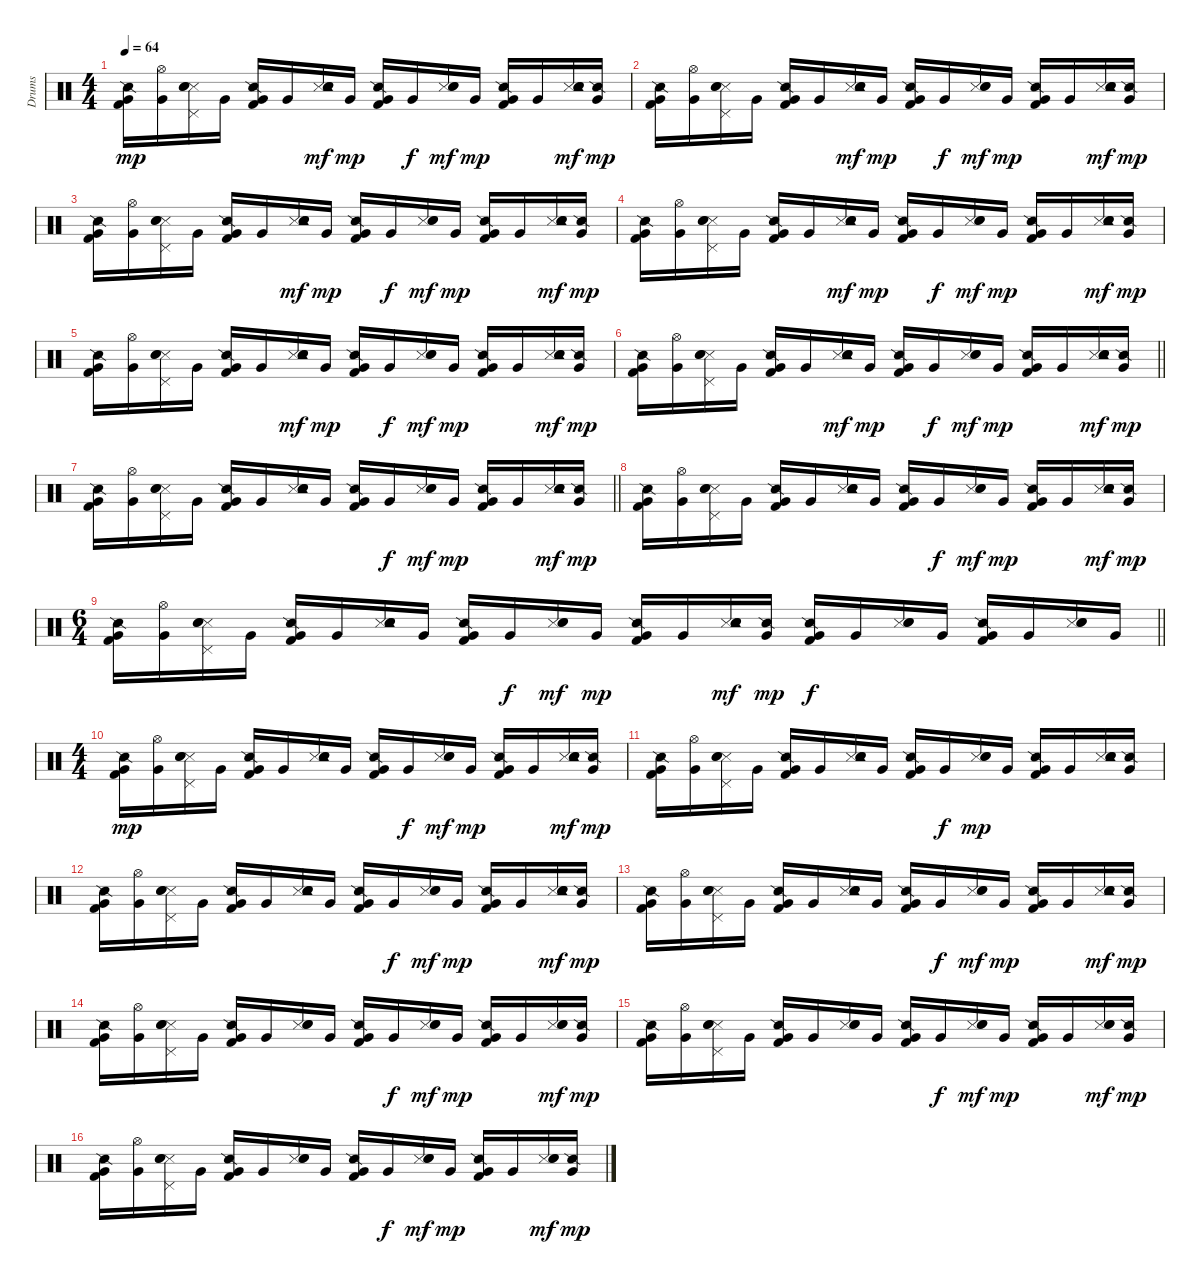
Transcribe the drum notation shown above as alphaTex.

\track ("Drums" "Drums") {instrument percussion}
\staff {score}
\articulation defaults
\ts (4 4)
\tempo 64
\clef neutral
\ks c
("Snare (side stick) 2" "Very Low Tom (hit)" "Kick (hit) 2").16{dy mp} ("Hi-Hat (open)" "Very Low Tom (hit)").16 ("Metronome (hit)" "Snare (hit) 2" "Hand Clap (hit)" "Pedal Hi-Hat (hit)").16 "Very Low Tom (hit)".16 ("Snare (side stick) 2" "Very Low Tom (hit)" "Kick (hit) 2").16 "Very Low Tom (hit)".16 ("Metronome (hit)" "Hand Clap (hit)" "Snare (hit) 2" "Tambourine (hit)").16{dy mf} "Very Low Tom (hit)".16{dy mp} ("Snare (side stick) 2" "Very Low Tom (hit)" "Kick (hit) 2").16 "Very Low Tom (hit)".16{dy f} ("Metronome (hit)" "Hand Clap (hit)" "Snare (hit) 2").16{dy mf} "Very Low Tom (hit)".16{dy mp} ("Snare (side stick) 2" "Very Low Tom (hit)" "Kick (hit) 2").16 "Very Low Tom (hit)".16 ("Metronome (hit)" "Hand Clap (hit)" "Snare (hit) 2" "Tambourine (hit)").16{dy mf} ("Snare (side stick) 2" "Very Low Tom (hit)").16{dy mp} |
("Snare (side stick) 2" "Very Low Tom (hit)" "Kick (hit) 2").16 ("Hi-Hat (open)" "Very Low Tom (hit)").16 ("Metronome (hit)" "Snare (hit) 2" "Hand Clap (hit)" "Pedal Hi-Hat (hit)").16 "Very Low Tom (hit)".16 ("Snare (side stick) 2" "Very Low Tom (hit)" "Kick (hit) 2").16 "Very Low Tom (hit)".16 ("Metronome (hit)" "Hand Clap (hit)" "Snare (hit) 2" "Tambourine (hit)").16{dy mf} "Very Low Tom (hit)".16{dy mp} ("Snare (side stick) 2" "Very Low Tom (hit)" "Kick (hit) 2").16 "Very Low Tom (hit)".16{dy f} ("Metronome (hit)" "Hand Clap (hit)" "Snare (hit) 2").16{dy mf} "Very Low Tom (hit)".16{dy mp} ("Snare (side stick) 2" "Very Low Tom (hit)" "Kick (hit) 2").16 "Very Low Tom (hit)".16 ("Metronome (hit)" "Hand Clap (hit)" "Snare (hit) 2" "Tambourine (hit)").16{dy mf} ("Snare (side stick) 2" "Very Low Tom (hit)").16{dy mp} |
("Snare (side stick) 2" "Very Low Tom (hit)" "Kick (hit) 2").16 ("Hi-Hat (open)" "Very Low Tom (hit)").16 ("Metronome (hit)" "Snare (hit) 2" "Hand Clap (hit)" "Pedal Hi-Hat (hit)").16 "Very Low Tom (hit)".16 ("Snare (side stick) 2" "Very Low Tom (hit)" "Kick (hit) 2").16 "Very Low Tom (hit)".16 ("Metronome (hit)" "Hand Clap (hit)" "Snare (hit) 2" "Tambourine (hit)").16{dy mf} "Very Low Tom (hit)".16{dy mp} ("Snare (side stick) 2" "Very Low Tom (hit)" "Kick (hit) 2").16 "Very Low Tom (hit)".16{dy f} ("Metronome (hit)" "Hand Clap (hit)" "Snare (hit) 2").16{dy mf} "Very Low Tom (hit)".16{dy mp} ("Snare (side stick) 2" "Very Low Tom (hit)" "Kick (hit) 2").16 "Very Low Tom (hit)".16 ("Metronome (hit)" "Hand Clap (hit)" "Snare (hit) 2" "Tambourine (hit)").16{dy mf} ("Snare (side stick) 2" "Very Low Tom (hit)").16{dy mp} |
("Snare (side stick) 2" "Very Low Tom (hit)" "Kick (hit) 2").16 ("Hi-Hat (open)" "Very Low Tom (hit)").16 ("Metronome (hit)" "Snare (hit) 2" "Hand Clap (hit)" "Pedal Hi-Hat (hit)").16 "Very Low Tom (hit)".16 ("Snare (side stick) 2" "Very Low Tom (hit)" "Kick (hit) 2").16 "Very Low Tom (hit)".16 ("Metronome (hit)" "Hand Clap (hit)" "Snare (hit) 2" "Tambourine (hit)").16{dy mf} "Very Low Tom (hit)".16{dy mp} ("Snare (side stick) 2" "Very Low Tom (hit)" "Kick (hit) 2").16 "Very Low Tom (hit)".16{dy f} ("Metronome (hit)" "Hand Clap (hit)" "Snare (hit) 2").16{dy mf} "Very Low Tom (hit)".16{dy mp} ("Snare (side stick) 2" "Very Low Tom (hit)" "Kick (hit) 2").16 "Very Low Tom (hit)".16 ("Metronome (hit)" "Hand Clap (hit)" "Snare (hit) 2" "Tambourine (hit)").16{dy mf} ("Snare (side stick) 2" "Very Low Tom (hit)").16{dy mp} |
("Snare (side stick) 2" "Very Low Tom (hit)" "Kick (hit) 2").16 ("Hi-Hat (open)" "Very Low Tom (hit)").16 ("Metronome (hit)" "Snare (hit) 2" "Hand Clap (hit)" "Pedal Hi-Hat (hit)").16 "Very Low Tom (hit)".16 ("Snare (side stick) 2" "Very Low Tom (hit)" "Kick (hit) 2").16 "Very Low Tom (hit)".16 ("Metronome (hit)" "Hand Clap (hit)" "Snare (hit) 2" "Tambourine (hit)").16{dy mf} "Very Low Tom (hit)".16{dy mp} ("Snare (side stick) 2" "Very Low Tom (hit)" "Kick (hit) 2").16 "Very Low Tom (hit)".16{dy f} ("Metronome (hit)" "Hand Clap (hit)" "Snare (hit) 2").16{dy mf} "Very Low Tom (hit)".16{dy mp} ("Snare (side stick) 2" "Very Low Tom (hit)" "Kick (hit) 2").16 "Very Low Tom (hit)".16 ("Metronome (hit)" "Hand Clap (hit)" "Snare (hit) 2" "Tambourine (hit)").16{dy mf} ("Snare (side stick) 2" "Very Low Tom (hit)").16{dy mp} |
\barLineRight lightlight
("Snare (side stick) 2" "Very Low Tom (hit)" "Kick (hit) 2").16{volume 13} ("Hi-Hat (open)" "Very Low Tom (hit)").16 ("Metronome (hit)" "Snare (hit) 2" "Hand Clap (hit)" "Pedal Hi-Hat (hit)").16 "Very Low Tom (hit)".16 ("Snare (side stick) 2" "Very Low Tom (hit)" "Kick (hit) 2").16 "Very Low Tom (hit)".16 ("Metronome (hit)" "Hand Clap (hit)" "Snare (hit) 2" "Tambourine (hit)").16{dy mf} "Very Low Tom (hit)".16{dy mp} ("Snare (side stick) 2" "Very Low Tom (hit)" "Kick (hit) 2").16 "Very Low Tom (hit)".16{dy f} ("Metronome (hit)" "Hand Clap (hit)" "Snare (hit) 2").16{dy mf} "Very Low Tom (hit)".16{dy mp} ("Snare (side stick) 2" "Very Low Tom (hit)" "Kick (hit) 2").16 "Very Low Tom (hit)".16 ("Metronome (hit)" "Hand Clap (hit)" "Snare (hit) 2" "Tambourine (hit)").16{dy mf} ("Snare (side stick) 2" "Very Low Tom (hit)").16{dy mp} |
\barLineRight lightlight
("Snare (side stick) 2" "Very Low Tom (hit)" "Kick (hit) 2").16 ("Hi-Hat (open)" "Very Low Tom (hit)").16 ("Metronome (hit)" "Snare (hit) 2" "Hand Clap (hit)" "Pedal Hi-Hat (hit)").16 "Very Low Tom (hit)".16 ("Snare (side stick) 2" "Very Low Tom (hit)" "Kick (hit) 2").16 "Very Low Tom (hit)".16 ("Metronome (hit)" "Hand Clap (hit)" "Snare (hit) 2" "Tambourine (hit)").16 "Very Low Tom (hit)".16 ("Snare (side stick) 2" "Very Low Tom (hit)" "Kick (hit) 2").16 "Very Low Tom (hit)".16{dy f} ("Metronome (hit)" "Hand Clap (hit)" "Snare (hit) 2").16{dy mf} "Very Low Tom (hit)".16{dy mp} ("Snare (side stick) 2" "Very Low Tom (hit)" "Kick (hit) 2").16 "Very Low Tom (hit)".16 ("Metronome (hit)" "Hand Clap (hit)" "Snare (hit) 2" "Tambourine (hit)").16{dy mf} ("Snare (side stick) 2" "Very Low Tom (hit)").16{dy mp} |
("Snare (side stick) 2" "Very Low Tom (hit)" "Kick (hit) 2").16 ("Hi-Hat (open)" "Very Low Tom (hit)").16 ("Metronome (hit)" "Snare (hit) 2" "Hand Clap (hit)" "Pedal Hi-Hat (hit)").16 "Very Low Tom (hit)".16 ("Snare (side stick) 2" "Very Low Tom (hit)" "Kick (hit) 2").16 "Very Low Tom (hit)".16 ("Metronome (hit)" "Hand Clap (hit)" "Snare (hit) 2" "Tambourine (hit)").16 "Very Low Tom (hit)".16 ("Snare (side stick) 2" "Very Low Tom (hit)" "Kick (hit) 2").16 "Very Low Tom (hit)".16{dy f} ("Metronome (hit)" "Hand Clap (hit)" "Snare (hit) 2").16{dy mf} "Very Low Tom (hit)".16{dy mp} ("Snare (side stick) 2" "Very Low Tom (hit)" "Kick (hit) 2").16 "Very Low Tom (hit)".16 ("Metronome (hit)" "Hand Clap (hit)" "Snare (hit) 2" "Tambourine (hit)").16{dy mf} ("Snare (side stick) 2" "Very Low Tom (hit)").16{dy mp} |
\ts (6 4)
\barLineRight lightlight
("Snare (side stick) 2" "Very Low Tom (hit)" "Kick (hit) 2").16 ("Hi-Hat (open)" "Very Low Tom (hit)").16 ("Metronome (hit)" "Snare (hit) 2" "Hand Clap (hit)" "Pedal Hi-Hat (hit)").16 "Very Low Tom (hit)".16 ("Snare (side stick) 2" "Very Low Tom (hit)" "Kick (hit) 2").16 "Very Low Tom (hit)".16 ("Metronome (hit)" "Hand Clap (hit)" "Snare (hit) 2" "Tambourine (hit)").16 "Very Low Tom (hit)".16 ("Snare (side stick) 2" "Very Low Tom (hit)" "Kick (hit) 2").16 "Very Low Tom (hit)".16{dy f} ("Metronome (hit)" "Hand Clap (hit)" "Snare (hit) 2").16{dy mf} "Very Low Tom (hit)".16{dy mp} ("Snare (side stick) 2" "Very Low Tom (hit)" "Kick (hit) 2").16 "Very Low Tom (hit)".16 ("Metronome (hit)" "Hand Clap (hit)" "Snare (hit) 2" "Tambourine (hit)").16{dy mf} ("Snare (side stick) 2" "Very Low Tom (hit)").16{dy mp} ("Snare (side stick) 2" "Very Low Tom (hit)" "Kick (hit) 2").16{dy f} "Very Low Tom (hit)".16 ("Metronome (hit)" "Hand Clap (hit)" "Snare (hit) 2").16 "Very Low Tom (hit)".16 ("Snare (side stick) 2" "Very Low Tom (hit)" "Kick (hit) 2").16 "Very Low Tom (hit)".16 ("Metronome (hit)" "Hand Clap (hit)" "Snare (hit) 2").16 "Very Low Tom (hit)".16 |
\ts (4 4)
("Snare (side stick) 2" "Very Low Tom (hit)" "Kick (hit) 2").16{dy mp} ("Hi-Hat (open)" "Very Low Tom (hit)").16 ("Metronome (hit)" "Snare (hit) 2" "Hand Clap (hit)" "Pedal Hi-Hat (hit)").16 "Very Low Tom (hit)".16 ("Snare (side stick) 2" "Very Low Tom (hit)" "Kick (hit) 2").16 "Very Low Tom (hit)".16 ("Metronome (hit)" "Hand Clap (hit)" "Snare (hit) 2" "Tambourine (hit)").16 "Very Low Tom (hit)".16 ("Snare (side stick) 2" "Very Low Tom (hit)" "Kick (hit) 2").16 "Very Low Tom (hit)".16{dy f} ("Metronome (hit)" "Hand Clap (hit)" "Snare (hit) 2").16{dy mf} "Very Low Tom (hit)".16{dy mp} ("Snare (side stick) 2" "Very Low Tom (hit)" "Kick (hit) 2").16 "Very Low Tom (hit)".16 ("Metronome (hit)" "Hand Clap (hit)" "Snare (hit) 2" "Tambourine (hit)").16{dy mf} ("Snare (side stick) 2" "Very Low Tom (hit)").16{dy mp} |
("Snare (side stick) 2" "Very Low Tom (hit)" "Kick (hit) 2").16 ("Hi-Hat (open)" "Very Low Tom (hit)").16 ("Metronome (hit)" "Snare (hit) 2" "Hand Clap (hit)" "Pedal Hi-Hat (hit)").16 "Very Low Tom (hit)".16 ("Snare (side stick) 2" "Very Low Tom (hit)" "Kick (hit) 2").16 "Very Low Tom (hit)".16 ("Metronome (hit)" "Hand Clap (hit)" "Snare (hit) 2" "Tambourine (hit)").16 "Very Low Tom (hit)".16 ("Snare (side stick) 2" "Very Low Tom (hit)" "Kick (hit) 2").16 "Very Low Tom (hit)".16{dy f} ("Metronome (hit)" "Hand Clap (hit)" "Snare (hit) 2").16{dy mp} "Very Low Tom (hit)".16 ("Snare (side stick) 2" "Very Low Tom (hit)" "Kick (hit) 2").16 "Very Low Tom (hit)".16 ("Metronome (hit)" "Hand Clap (hit)" "Snare (hit) 2" "Tambourine (hit)").16 ("Snare (side stick) 2" "Very Low Tom (hit)").16 |
("Snare (side stick) 2" "Very Low Tom (hit)" "Kick (hit) 2").16 ("Hi-Hat (open)" "Very Low Tom (hit)").16 ("Metronome (hit)" "Snare (hit) 2" "Hand Clap (hit)" "Pedal Hi-Hat (hit)").16 "Very Low Tom (hit)".16 ("Snare (side stick) 2" "Very Low Tom (hit)" "Kick (hit) 2").16 "Very Low Tom (hit)".16 ("Metronome (hit)" "Hand Clap (hit)" "Snare (hit) 2" "Tambourine (hit)").16 "Very Low Tom (hit)".16 ("Snare (side stick) 2" "Very Low Tom (hit)" "Kick (hit) 2").16 "Very Low Tom (hit)".16{dy f} ("Metronome (hit)" "Hand Clap (hit)" "Snare (hit) 2").16{dy mf} "Very Low Tom (hit)".16{dy mp} ("Snare (side stick) 2" "Very Low Tom (hit)" "Kick (hit) 2").16 "Very Low Tom (hit)".16 ("Metronome (hit)" "Hand Clap (hit)" "Snare (hit) 2" "Tambourine (hit)").16{dy mf} ("Snare (side stick) 2" "Very Low Tom (hit)").16{dy mp} |
("Snare (side stick) 2" "Very Low Tom (hit)" "Kick (hit) 2").16 ("Hi-Hat (open)" "Very Low Tom (hit)").16 ("Metronome (hit)" "Snare (hit) 2" "Hand Clap (hit)" "Pedal Hi-Hat (hit)").16 "Very Low Tom (hit)".16 ("Snare (side stick) 2" "Very Low Tom (hit)" "Kick (hit) 2").16 "Very Low Tom (hit)".16 ("Metronome (hit)" "Hand Clap (hit)" "Snare (hit) 2" "Tambourine (hit)").16 "Very Low Tom (hit)".16 ("Snare (side stick) 2" "Very Low Tom (hit)" "Kick (hit) 2").16 "Very Low Tom (hit)".16{dy f} ("Metronome (hit)" "Hand Clap (hit)" "Snare (hit) 2").16{dy mf} "Very Low Tom (hit)".16{dy mp} ("Snare (side stick) 2" "Very Low Tom (hit)" "Kick (hit) 2").16 "Very Low Tom (hit)".16 ("Metronome (hit)" "Hand Clap (hit)" "Snare (hit) 2" "Tambourine (hit)").16{dy mf} ("Snare (side stick) 2" "Very Low Tom (hit)").16{dy mp} |
("Snare (side stick) 2" "Very Low Tom (hit)" "Kick (hit) 2").16 ("Hi-Hat (open)" "Very Low Tom (hit)").16 ("Metronome (hit)" "Snare (hit) 2" "Hand Clap (hit)" "Pedal Hi-Hat (hit)").16 "Very Low Tom (hit)".16 ("Snare (side stick) 2" "Very Low Tom (hit)" "Kick (hit) 2").16 "Very Low Tom (hit)".16 ("Metronome (hit)" "Hand Clap (hit)" "Snare (hit) 2").16 "Very Low Tom (hit)".16 ("Snare (side stick) 2" "Very Low Tom (hit)" "Kick (hit) 2").16 "Very Low Tom (hit)".16{dy f} ("Metronome (hit)" "Hand Clap (hit)" "Snare (hit) 2").16{dy mf} "Very Low Tom (hit)".16{dy mp} ("Snare (side stick) 2" "Very Low Tom (hit)" "Kick (hit) 2").16 "Very Low Tom (hit)".16 ("Metronome (hit)" "Hand Clap (hit)" "Snare (hit) 2").16{dy mf} ("Snare (side stick) 2" "Very Low Tom (hit)").16{dy mp} |
("Snare (side stick) 2" "Very Low Tom (hit)" "Kick (hit) 2").16 ("Hi-Hat (open)" "Very Low Tom (hit)").16 ("Metronome (hit)" "Snare (hit) 2" "Hand Clap (hit)" "Pedal Hi-Hat (hit)").16 "Very Low Tom (hit)".16 ("Snare (side stick) 2" "Very Low Tom (hit)" "Kick (hit) 2").16 "Very Low Tom (hit)".16 ("Metronome (hit)" "Hand Clap (hit)" "Snare (hit) 2").16 "Very Low Tom (hit)".16 ("Snare (side stick) 2" "Very Low Tom (hit)" "Kick (hit) 2").16 "Very Low Tom (hit)".16{dy f} ("Metronome (hit)" "Hand Clap (hit)" "Snare (hit) 2").16{dy mf} "Very Low Tom (hit)".16{dy mp} ("Snare (side stick) 2" "Very Low Tom (hit)" "Kick (hit) 2").16 "Very Low Tom (hit)".16 ("Metronome (hit)" "Hand Clap (hit)" "Snare (hit) 2").16{dy mf} ("Snare (side stick) 2" "Very Low Tom (hit)").16{dy mp} |
("Snare (side stick) 2" "Very Low Tom (hit)" "Kick (hit) 2").16 ("Hi-Hat (open)" "Very Low Tom (hit)").16 ("Metronome (hit)" "Snare (hit) 2" "Hand Clap (hit)" "Pedal Hi-Hat (hit)").16 "Very Low Tom (hit)".16 ("Snare (side stick) 2" "Very Low Tom (hit)" "Kick (hit) 2").16 "Very Low Tom (hit)".16 ("Metronome (hit)" "Hand Clap (hit)" "Snare (hit) 2").16 "Very Low Tom (hit)".16 ("Snare (side stick) 2" "Very Low Tom (hit)" "Kick (hit) 2").16 "Very Low Tom (hit)".16{dy f} ("Metronome (hit)" "Hand Clap (hit)" "Snare (hit) 2").16{dy mf} "Very Low Tom (hit)".16{dy mp} ("Snare (side stick) 2" "Very Low Tom (hit)" "Kick (hit) 2").16 "Very Low Tom (hit)".16 ("Metronome (hit)" "Hand Clap (hit)" "Snare (hit) 2").16{dy mf} ("Snare (side stick) 2" "Very Low Tom (hit)").16{dy mp}
